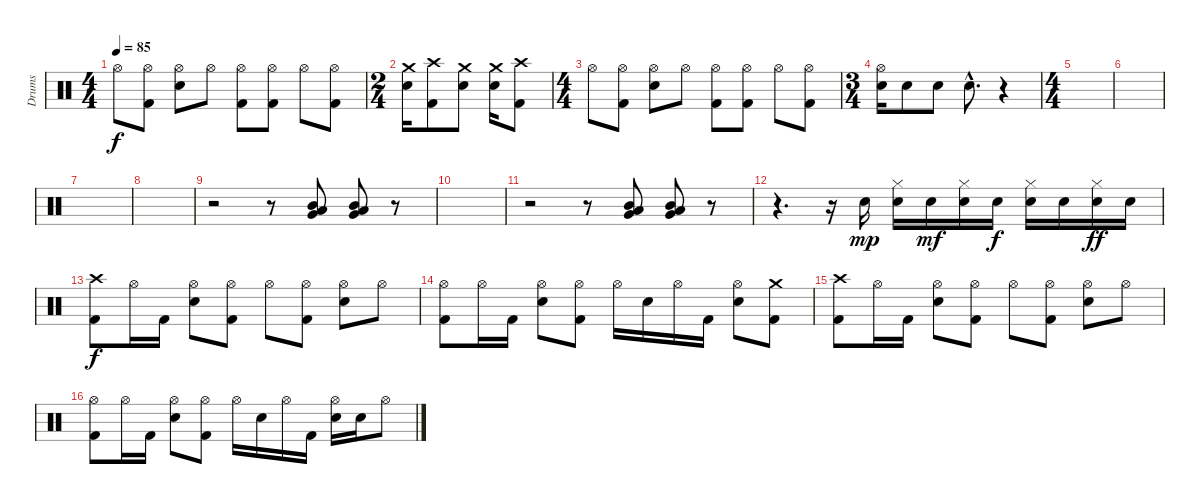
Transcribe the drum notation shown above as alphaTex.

\track ("Drums" "Drums") {instrument percussion}
\staff {score}
\articulation defaults
\ts (4 4)
\tempo 85
\clef neutral
\ks c "Hi-Hat (open)".8{dy f}
("Hi-Hat (open)" "Kick (hit) 2").8 ("Hi-Hat (open)" "Electric Snare (hit)").8 "Hi-Hat (open)".8 ("Hi-Hat (open)" "Kick (hit) 2").8 ("Hi-Hat (open)" "Kick (hit) 2").8 "Hi-Hat (open)".8 ("Hi-Hat (open)" "Kick (hit) 2").8 |
\ts (2 4)
("Crash medium (hit)" "Electric Snare (hit)").16 ("Crash high (hit)" "Kick (hit) 2").8 ("Crash medium (hit)" "Electric Snare (hit)").8 ("Crash medium (hit)" "Electric Snare (hit)").16 ("Crash high (hit)" "Kick (hit) 2").8 |
\ts (4 4)
"Hi-Hat (open)".8 ("Hi-Hat (open)" "Kick (hit) 2").8 ("Hi-Hat (open)" "Electric Snare (hit)").8 "Hi-Hat (open)".8 ("Hi-Hat (open)" "Kick (hit) 2").8 ("Hi-Hat (open)" "Kick (hit) 2").8 "Hi-Hat (open)".8 ("Hi-Hat (open)" "Kick (hit) 2").8 |
\ts (3 4)
("Hi-Hat (open)" "Electric Snare (hit)").16 "Electric Snare (hit)".8 "Electric Snare (hit)".8 "Electric Snare (hit)"{hac}.8{d} r.4 |
\ts (4 4)
|
|
|
|
r.2 r.8 ("Mid Tom (hit)" "Low Tom (hit)" "Very Low Tom (hit)").8 ("Mid Tom (hit)" "Low Tom (hit)" "Very Low Tom (hit)").8 r.8 |
|
r.2 r.8 ("Mid Tom (hit)" "Low Tom (hit)" "Very Low Tom (hit)").8 ("Mid Tom (hit)" "Low Tom (hit)" "Very Low Tom (hit)").8 r.8 |
r.4{d} r.16 "Electric Snare (hit)".16{dy mp} ("Hi-Hat (closed)" "Electric Snare (hit)").16 "Electric Snare (hit)".16{dy mf} ("Hi-Hat (closed)" "Electric Snare (hit)").16 "Electric Snare (hit)".16{dy f} ("Hi-Hat (closed)" "Electric Snare (hit)").16 "Electric Snare (hit)".16 ("Hi-Hat (closed)" "Electric Snare (hit)").16{dy ff} "Electric Snare (hit)".16 |
("Crash high (hit)" "Kick (hit) 2").8{dy f} "Hi-Hat (open)".16 "Kick (hit) 2".16 ("Hi-Hat (open)" "Electric Snare (hit)").8 ("Hi-Hat (open)" "Kick (hit) 2").8 "Hi-Hat (open)".8 ("Hi-Hat (open)" "Kick (hit) 2").8 ("Hi-Hat (open)" "Electric Snare (hit)").8 "Hi-Hat (open)".8 |
("Hi-Hat (open)" "Kick (hit) 2").8 "Hi-Hat (open)".16 "Kick (hit) 2".16 ("Hi-Hat (open)" "Electric Snare (hit)").8 ("Hi-Hat (open)" "Kick (hit) 2").8 "Hi-Hat (open)".16 "Electric Snare (hit)".16 "Hi-Hat (open)".16 "Kick (hit) 2".16 ("Hi-Hat (open)" "Electric Snare (hit)").8 ("Crash medium (hit)" "Kick (hit) 2").8 |
("Crash high (hit)" "Kick (hit) 2").8 "Hi-Hat (open)".16 "Kick (hit) 2".16 ("Hi-Hat (open)" "Electric Snare (hit)").8 ("Hi-Hat (open)" "Kick (hit) 2").8 "Hi-Hat (open)".8 ("Hi-Hat (open)" "Kick (hit) 2").8 ("Hi-Hat (open)" "Electric Snare (hit)").8 "Hi-Hat (open)".8 |
("Hi-Hat (open)" "Kick (hit) 2").8 "Hi-Hat (open)".16 "Kick (hit) 2".16 ("Hi-Hat (open)" "Electric Snare (hit)").8 ("Hi-Hat (open)" "Kick (hit) 2").8 "Hi-Hat (open)".16 "Electric Snare (hit)".16 "Hi-Hat (open)".16 "Kick (hit) 2".16 ("Hi-Hat (open)" "Electric Snare (hit)").16 "Electric Snare (hit)".16 "Hi-Hat (open)".8
